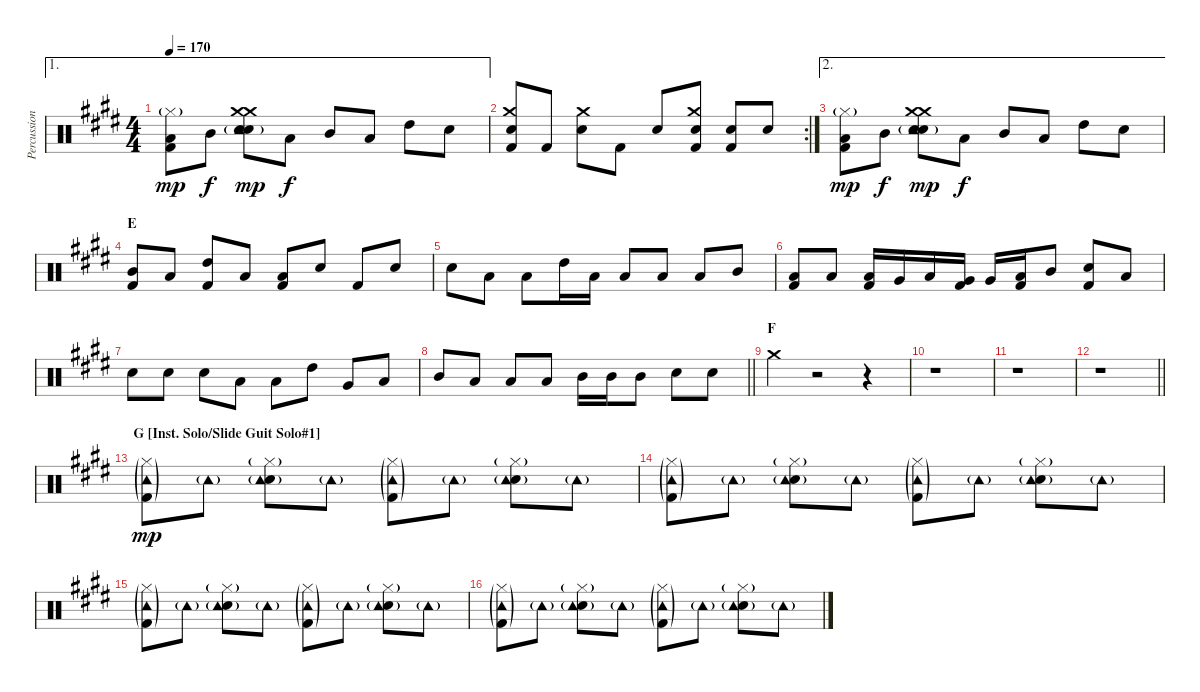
\track ("Percussion" "Percussion") {instrument percussion}
\staff {score}
\articulation defaults
\ae 1
\ts (4 4)
\tempo 170
\clef neutral
\ks e
("Hi-Hat (closed)"{g} "Low Tom (hit)" "Kick (hit) 2").8{dy mp} "Mid Tom (hit)".8{dy f} ("Crash medium (hit)" "Crash medium (hit)" "Snare (hit) 2" "Snare (hit) 2" "Tambourine (hit)"{g}).8{dy mp} "Low Tom (hit)".8{dy f} "Mid Tom (hit)".8 "Low Tom (hit)".8 "High Tom (hit)".8 "Snare (hit) 2".8 |
\rc 2
("Crash medium (hit)" "Snare (hit) 2" "Kick (hit) 2").8 "Kick (hit) 2".8 ("Crash medium (hit)" "Snare (hit) 2").8 "Kick (hit) 2".8 "Snare (hit) 2".8 ("Crash medium (hit)" "Snare (hit) 2" "Kick (hit) 2").8 ("Snare (hit) 2" "Kick (hit) 2").8 "Snare (hit) 2".8 |
\ae 2
("Hi-Hat (closed)"{g} "Low Tom (hit)" "Kick (hit) 2").8{dy mp} "Mid Tom (hit)".8{dy f} ("Crash medium (hit)" "Crash medium (hit)" "Snare (hit) 2" "Snare (hit) 2" "Tambourine (hit)"{g}).8{dy mp} "Low Tom (hit)".8{dy f} "Mid Tom (hit)".8 "Low Tom (hit)".8 "High Tom (hit)".8 "Snare (hit) 2".8 |
\section ("" "E")
("Mid Tom (hit)" "Kick (hit) 2").8 "Low Tom (hit)".8 ("High Tom (hit)" "Kick (hit) 2").8 "Low Tom (hit)".8 ("Low Tom (hit)" "Kick (hit) 2").8 "Snare (hit) 2".8 "Kick (hit) 2".8 "Snare (hit) 2".8 |
"Snare (hit) 2".8 "Low Tom (hit)".8 "Low Tom (hit)".8 "High Tom (hit)".16 "Low Tom (hit)".16 "Low Tom (hit)".8 "Low Tom (hit)".8 "Low Tom (hit)".8 "Mid Tom (hit)".8 |
("Low Tom (hit)" "Kick (hit) 2").8 "Low Tom (hit)".8 ("Low Tom (hit)" "Kick (hit) 2").16 "Very Low Tom (hit)".16 "Low Tom (hit)".16 ("Very Low Tom (hit)" "Kick (hit) 2").16 "Very Low Tom (hit)".16 ("Low Tom (hit)" "Kick (hit) 2").16 "Mid Tom (hit)".8 ("Snare (hit) 2" "Kick (hit) 2").8 "Low Tom (hit)".8 |
"Snare (hit) 2".8 "Snare (hit) 2".8 "Snare (hit) 2".8 "Low Tom (hit)".8 "Low Tom (hit)".8 "High Tom (hit)".8 "Very Low Tom (hit)".8 "Low Tom (hit)".8 |
\barLineRight lightlight "Mid Tom (hit)".8 "Low Tom (hit)".8 "Low Tom (hit)".8 "Low Tom (hit)".8 "Mid Tom (hit)".16 "Mid Tom (hit)".16 "Mid Tom (hit)".8 "Snare (hit) 2".8 "Snare (hit) 2".8
|
\section ("" "F")
"Crash medium (hit)".4 r.2 r.4 |
r.1 |
r.1 |
\barLineRight lightlight
r.1 |
\section ("" "G [Inst. Solo/Slide Guit Solo#1]")
("Hi-Hat (closed)"{g} "Kick (hit) 2"{g} "Tambourine (hit)"{g}).8{dy mp} "Tambourine (hit)"{g}.8 ("Hi-Hat (closed)"{g} "Snare (hit) 2" "Tambourine (hit)"{g}).8 "Tambourine (hit)"{g}.8 ("Hi-Hat (closed)"{g} "Kick (hit) 2"{g} "Tambourine (hit)"{g}).8 "Tambourine (hit)"{g}.8 ("Hi-Hat (closed)"{g} "Snare (hit) 2" "Tambourine (hit)"{g}).8 "Tambourine (hit)"{g}.8 |
("Hi-Hat (closed)"{g} "Kick (hit) 2"{g} "Tambourine (hit)"{g}).8 "Tambourine (hit)"{g}.8 ("Hi-Hat (closed)"{g} "Snare (hit) 2" "Tambourine (hit)"{g}).8 "Tambourine (hit)"{g}.8 ("Hi-Hat (closed)"{g} "Kick (hit) 2"{g} "Tambourine (hit)"{g}).8 "Tambourine (hit)"{g}.8 ("Hi-Hat (closed)"{g} "Snare (hit) 2" "Tambourine (hit)"{g}).8 "Tambourine (hit)"{g}.8 |
("Hi-Hat (closed)"{g} "Kick (hit) 2"{g} "Tambourine (hit)"{g}).8 "Tambourine (hit)"{g}.8 ("Hi-Hat (closed)"{g} "Snare (hit) 2" "Tambourine (hit)"{g}).8 "Tambourine (hit)"{g}.8 ("Hi-Hat (closed)"{g} "Kick (hit) 2"{g} "Tambourine (hit)"{g}).8 "Tambourine (hit)"{g}.8 ("Hi-Hat (closed)"{g} "Snare (hit) 2" "Tambourine (hit)"{g}).8 "Tambourine (hit)"{g}.8 |
("Hi-Hat (closed)"{g} "Kick (hit) 2"{g} "Tambourine (hit)"{g}).8 "Tambourine (hit)"{g}.8 ("Hi-Hat (closed)"{g} "Snare (hit) 2" "Tambourine (hit)"{g}).8 "Tambourine (hit)"{g}.8 ("Hi-Hat (closed)"{g} "Kick (hit) 2"{g} "Tambourine (hit)"{g}).8 "Tambourine (hit)"{g}.8 ("Hi-Hat (closed)"{g} "Snare (hit) 2" "Tambourine (hit)"{g}).8 "Tambourine (hit)"{g}.8
